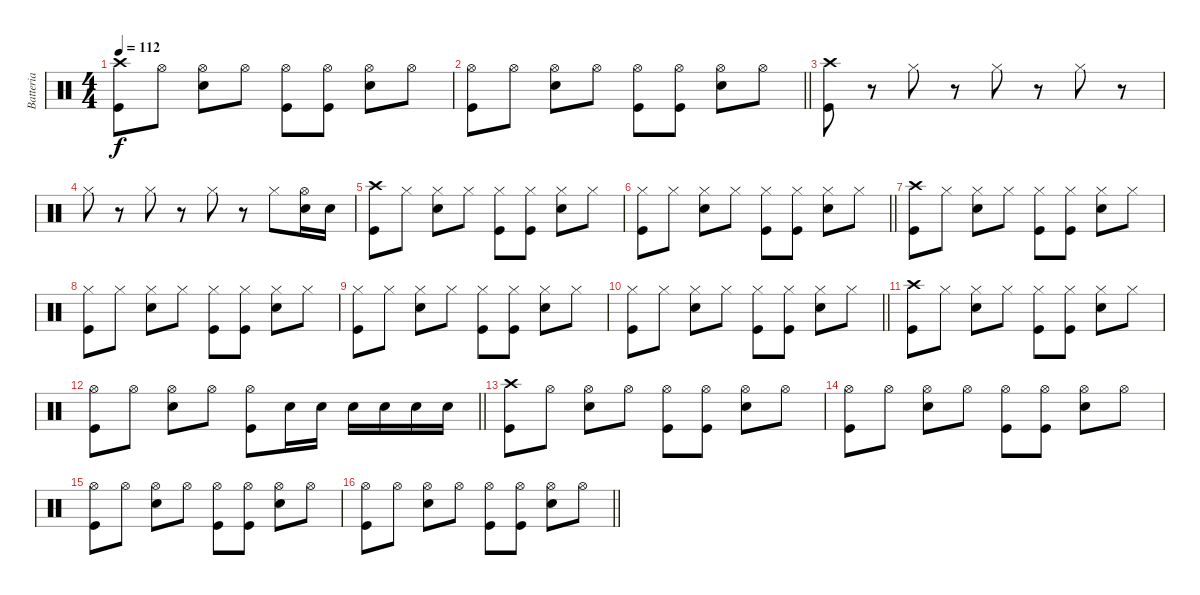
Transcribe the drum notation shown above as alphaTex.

\track ("Batteria" "Batteria") {instrument percussion}
\staff {score}
\articulation defaults
\ts (4 4)
\tempo 112
\clef neutral
\ks c
("Kick (hit)" "Crash high (hit)").8{dy f} "Hi-Hat (open)".8 ("Snare (hit) 2" "Hi-Hat (open)").8 "Hi-Hat (open)".8 ("Kick (hit)" "Hi-Hat (open)").8 ("Kick (hit)" "Hi-Hat (open)").8 ("Snare (hit) 2" "Hi-Hat (open)").8 "Hi-Hat (open)".8 |
\barLineRight lightlight
("Kick (hit)" "Hi-Hat (open)").8 "Hi-Hat (open)".8 ("Snare (hit) 2" "Hi-Hat (open)").8 "Hi-Hat (open)".8 ("Kick (hit)" "Hi-Hat (open)").8 ("Kick (hit)" "Hi-Hat (open)").8 ("Snare (hit) 2" "Hi-Hat (open)").8 "Hi-Hat (open)".8 |
("Crash high (hit)" "Kick (hit)").8 r.8 "Hi-Hat (closed)".8 r.8 "Hi-Hat (closed)".8 r.8 "Hi-Hat (closed)".8 r.8 |
"Hi-Hat (closed)".8 r.8 "Hi-Hat (closed)".8 r.8 "Hi-Hat (closed)".8 r.8 "Hi-Hat (closed)".8 ("Snare (hit) 2" "Hi-Hat (open)").16 "Snare (hit) 2".16 |
("Crash high (hit)" "Kick (hit)").8 "Hi-Hat (closed)".8 ("Snare (hit) 2" "Hi-Hat (closed)").8 "Hi-Hat (closed)".8 ("Kick (hit)" "Hi-Hat (closed)").8 ("Kick (hit)" "Hi-Hat (closed)").8 ("Snare (hit) 2" "Hi-Hat (closed)").8 "Hi-Hat (closed)".8 |
\barLineRight lightlight
("Hi-Hat (closed)" "Kick (hit)").8 "Hi-Hat (closed)".8 ("Snare (hit) 2" "Hi-Hat (closed)").8 "Hi-Hat (closed)".8 ("Kick (hit)" "Hi-Hat (closed)").8 ("Kick (hit)" "Hi-Hat (closed)").8 ("Snare (hit) 2" "Hi-Hat (closed)").8 "Hi-Hat (closed)".8 |
("Crash high (hit)" "Kick (hit)").8 "Hi-Hat (closed)".8 ("Snare (hit) 2" "Hi-Hat (closed)").8 "Hi-Hat (closed)".8 ("Kick (hit)" "Hi-Hat (closed)").8 ("Kick (hit)" "Hi-Hat (closed)").8 ("Snare (hit) 2" "Hi-Hat (closed)").8 "Hi-Hat (closed)".8 |
("Hi-Hat (closed)" "Kick (hit)").8 "Hi-Hat (closed)".8 ("Snare (hit) 2" "Hi-Hat (closed)").8 "Hi-Hat (closed)".8 ("Kick (hit)" "Hi-Hat (closed)").8 ("Kick (hit)" "Hi-Hat (closed)").8 ("Snare (hit) 2" "Hi-Hat (closed)").8 "Hi-Hat (closed)".8 |
("Hi-Hat (closed)" "Kick (hit)").8 "Hi-Hat (closed)".8 ("Snare (hit) 2" "Hi-Hat (closed)").8 "Hi-Hat (closed)".8 ("Kick (hit)" "Hi-Hat (closed)").8 ("Kick (hit)" "Hi-Hat (closed)").8 ("Snare (hit) 2" "Hi-Hat (closed)").8 "Hi-Hat (closed)".8 |
\barLineRight lightlight
("Hi-Hat (closed)" "Kick (hit)").8 "Hi-Hat (closed)".8 ("Snare (hit) 2" "Hi-Hat (closed)").8 "Hi-Hat (closed)".8 ("Kick (hit)" "Hi-Hat (closed)").8 ("Kick (hit)" "Hi-Hat (closed)").8 ("Snare (hit) 2" "Hi-Hat (closed)").8 "Hi-Hat (closed)".8 |
("Crash high (hit)" "Kick (hit)").8 "Hi-Hat (closed)".8 ("Snare (hit) 2" "Hi-Hat (closed)").8 "Hi-Hat (closed)".8 ("Kick (hit)" "Hi-Hat (closed)").8 ("Kick (hit)" "Hi-Hat (closed)").8 ("Snare (hit) 2" "Hi-Hat (closed)").8 "Hi-Hat (closed)".8 |
\barLineRight lightlight
("Hi-Hat (open)" "Kick (hit)").8 "Hi-Hat (open)".8 ("Snare (hit) 2" "Hi-Hat (open)").8 "Hi-Hat (open)".8 ("Kick (hit)" "Hi-Hat (open)").8 "Snare (hit) 2".16 "Snare (hit) 2".16 "Snare (hit) 2".16 "Snare (hit) 2".16 "Snare (hit) 2".16 "Snare (hit) 2".16 |
("Kick (hit)" "Crash high (hit)").8 "Hi-Hat (open)".8 ("Snare (hit) 2" "Hi-Hat (open)").8 "Hi-Hat (open)".8 ("Kick (hit)" "Hi-Hat (open)").8 ("Kick (hit)" "Hi-Hat (open)").8 ("Snare (hit) 2" "Hi-Hat (open)").8 "Hi-Hat (open)".8 |
("Kick (hit)" "Hi-Hat (open)").8 "Hi-Hat (open)".8 ("Snare (hit) 2" "Hi-Hat (open)").8 "Hi-Hat (open)".8 ("Kick (hit)" "Hi-Hat (open)").8 ("Kick (hit)" "Hi-Hat (open)").8 ("Snare (hit) 2" "Hi-Hat (open)").8 "Hi-Hat (open)".8 |
("Kick (hit)" "Hi-Hat (open)").8 "Hi-Hat (open)".8 ("Snare (hit) 2" "Hi-Hat (open)").8 "Hi-Hat (open)".8 ("Kick (hit)" "Hi-Hat (open)").8 ("Kick (hit)" "Hi-Hat (open)").8 ("Snare (hit) 2" "Hi-Hat (open)").8 "Hi-Hat (open)".8 |
\barLineRight lightlight
("Kick (hit)" "Hi-Hat (open)").8 "Hi-Hat (open)".8 ("Snare (hit) 2" "Hi-Hat (open)").8 "Hi-Hat (open)".8 ("Kick (hit)" "Hi-Hat (open)").8 ("Kick (hit)" "Hi-Hat (open)").8 ("Snare (hit) 2" "Hi-Hat (open)").8 "Hi-Hat (open)".8
